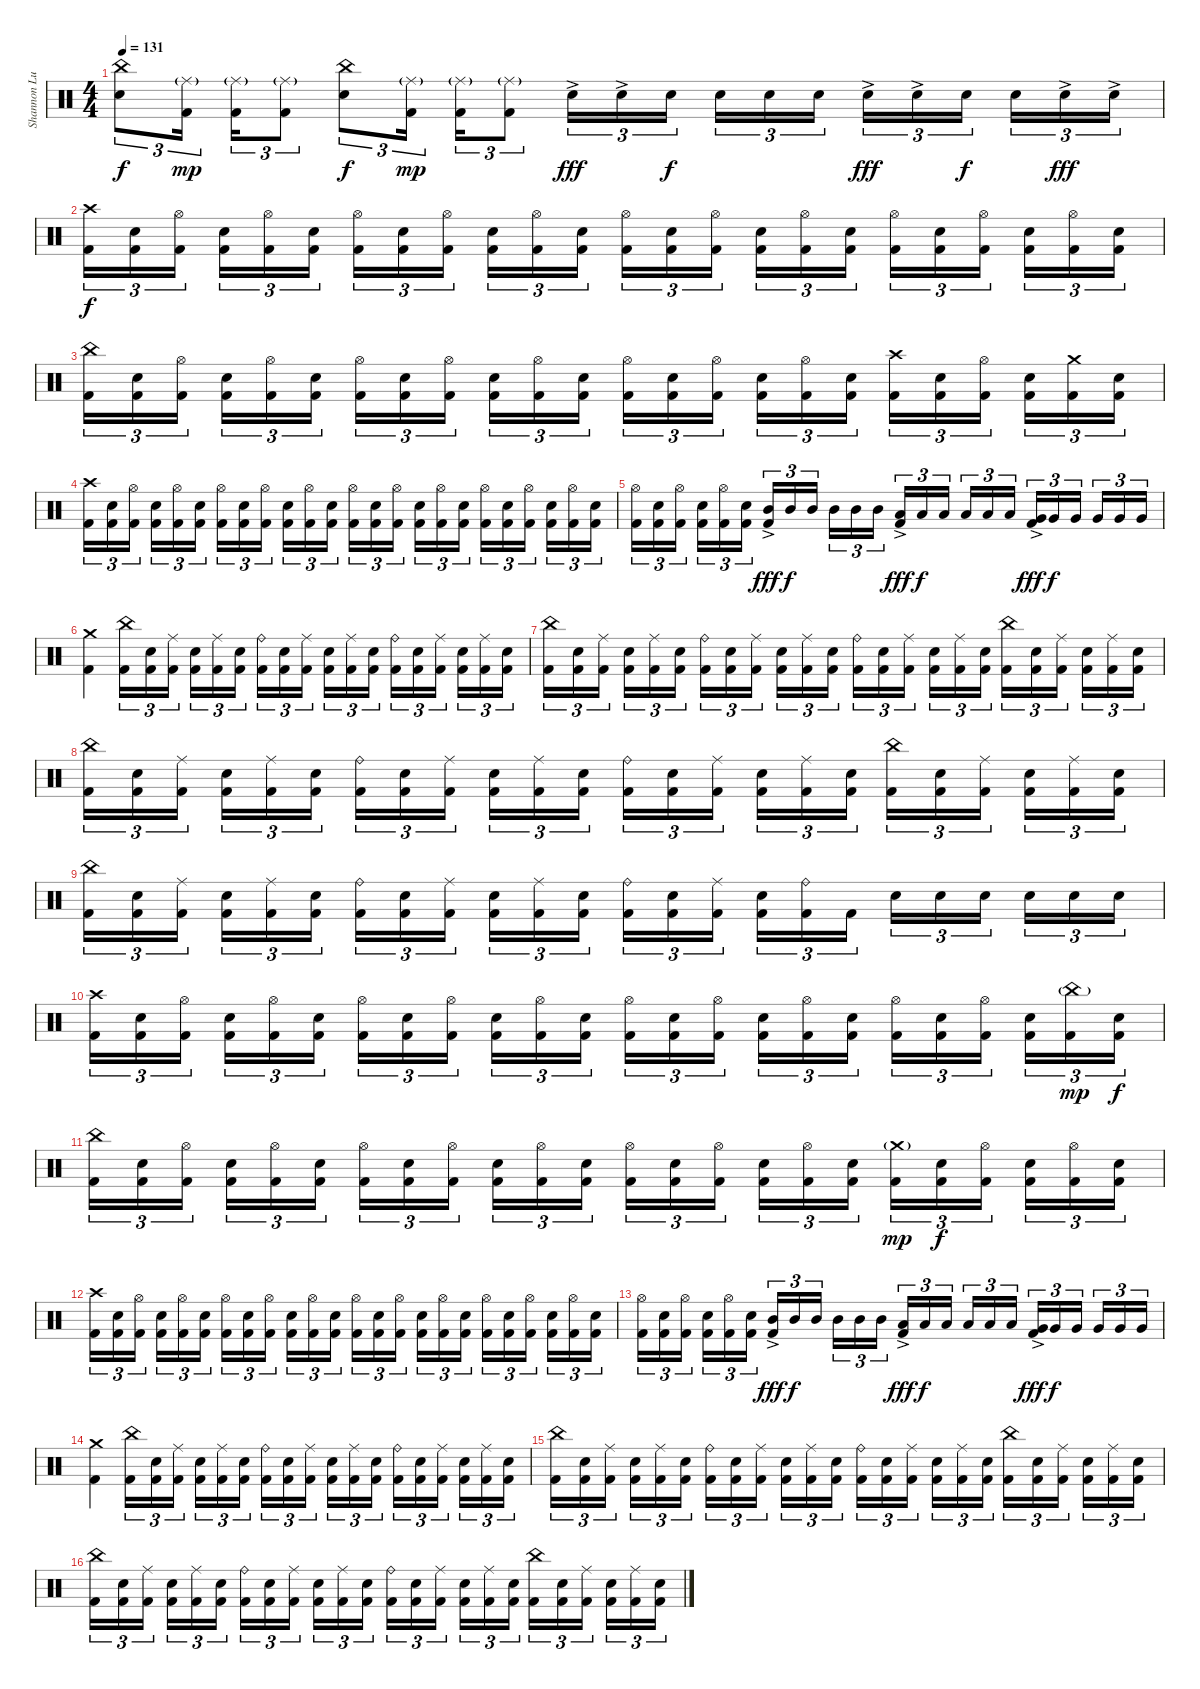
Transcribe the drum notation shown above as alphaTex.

\track ("Shannon Lucas [Drums (Since 2007)]" "Shannon Lu") {instrument percussion}
\staff {score}
\articulation defaults
\ts (4 4)
\tempo 131
\clef neutral
\ks c
("China (hit)" "Snare (hit) 2").8{tu (3 2) dy f} ("Ride (middle)"{g} "Kick (hit) 2").16{tu (3 2) dy mp} ("Ride (middle)"{g} "Kick (hit) 2").16{tu (3 2)} ("Ride (middle)"{g} "Kick (hit) 2").8{tu (3 2)} ("China (hit)" "Snare (hit) 2").8{tu (3 2) dy f} ("Ride (middle)"{g} "Kick (hit) 2").16{tu (3 2) dy mp} ("Ride (middle)"{g} "Kick (hit) 2").16{tu (3 2)} ("Ride (middle)"{g} "Kick (hit) 2").8{tu (3 2)} "Snare (hit) 2"{ac}.16{tu (3 2) dy fff} "Snare (hit) 2"{ac}.16{tu (3 2)} "Snare (hit) 2".16{tu (3 2) dy f} "Snare (hit) 2".16{tu (3 2)} "Snare (hit) 2".16{tu (3 2)} "Snare (hit) 2".16{tu (3 2)} "Snare (hit) 2"{ac}.16{tu (3 2) dy fff} "Snare (hit) 2"{ac}.16{tu (3 2)} "Snare (hit) 2".16{tu (3 2) dy f} "Snare (hit) 2".16{tu (3 2)} "Snare (hit) 2"{ac}.16{tu (3 2) dy fff} "Snare (hit) 2"{ac}.16{tu (3 2)} |
("Crash high (hit)" "Kick (hit) 2").16{tu (3 2) dy f} ("Snare (hit) 2" "Kick (hit) 2").16{tu (3 2)} ("Hi-Hat (open)" "Kick (hit) 2").16{tu (3 2)} ("Snare (hit) 2" "Kick (hit) 2").16{tu (3 2)} ("Hi-Hat (open)" "Kick (hit) 2").16{tu (3 2)} ("Snare (hit) 2" "Kick (hit) 2").16{tu (3 2)} ("Hi-Hat (open)" "Kick (hit) 2").16{tu (3 2)} ("Snare (hit) 2" "Kick (hit) 2").16{tu (3 2)} ("Hi-Hat (open)" "Kick (hit) 2").16{tu (3 2)} ("Snare (hit) 2" "Kick (hit) 2").16{tu (3 2)} ("Hi-Hat (open)" "Kick (hit) 2").16{tu (3 2)} ("Snare (hit) 2" "Kick (hit) 2").16{tu (3 2)} ("Hi-Hat (open)" "Kick (hit) 2").16{tu (3 2)} ("Snare (hit) 2" "Kick (hit) 2").16{tu (3 2)} ("Hi-Hat (open)" "Kick (hit) 2").16{tu (3 2)} ("Snare (hit) 2" "Kick (hit) 2").16{tu (3 2)} ("Hi-Hat (open)" "Kick (hit) 2").16{tu (3 2)} ("Snare (hit) 2" "Kick (hit) 2").16{tu (3 2)} ("Hi-Hat (open)" "Kick (hit) 2").16{tu (3 2)} ("Snare (hit) 2" "Kick (hit) 2").16{tu (3 2)} ("Hi-Hat (open)" "Kick (hit) 2").16{tu (3 2)} ("Snare (hit) 2" "Kick (hit) 2").16{tu (3 2)} ("Hi-Hat (open)" "Kick (hit) 2").16{tu (3 2)} ("Snare (hit) 2" "Kick (hit) 2").16{tu (3 2)} |
("China (hit)" "Kick (hit) 2").16{tu (3 2)} ("Snare (hit) 2" "Kick (hit) 2").16{tu (3 2)} ("Hi-Hat (open)" "Kick (hit) 2").16{tu (3 2)} ("Snare (hit) 2" "Kick (hit) 2").16{tu (3 2)} ("Hi-Hat (open)" "Kick (hit) 2").16{tu (3 2)} ("Snare (hit) 2" "Kick (hit) 2").16{tu (3 2)} ("Hi-Hat (open)" "Kick (hit) 2").16{tu (3 2)} ("Snare (hit) 2" "Kick (hit) 2").16{tu (3 2)} ("Hi-Hat (open)" "Kick (hit) 2").16{tu (3 2)} ("Snare (hit) 2" "Kick (hit) 2").16{tu (3 2)} ("Hi-Hat (open)" "Kick (hit) 2").16{tu (3 2)} ("Snare (hit) 2" "Kick (hit) 2").16{tu (3 2)} ("Hi-Hat (open)" "Kick (hit) 2").16{tu (3 2)} ("Snare (hit) 2" "Kick (hit) 2").16{tu (3 2)} ("Hi-Hat (open)" "Kick (hit) 2").16{tu (3 2)} ("Snare (hit) 2" "Kick (hit) 2").16{tu (3 2)} ("Hi-Hat (open)" "Kick (hit) 2").16{tu (3 2)} ("Snare (hit) 2" "Kick (hit) 2").16{tu (3 2)} ("Crash high (hit)" "Kick (hit) 2").16{tu (3 2)} ("Snare (hit) 2" "Kick (hit) 2").16{tu (3 2)} ("Hi-Hat (open)" "Kick (hit) 2").16{tu (3 2)} ("Snare (hit) 2" "Kick (hit) 2").16{tu (3 2)} ("Crash medium (hit)" "Kick (hit) 2").16{tu (3 2)} ("Snare (hit) 2" "Kick (hit) 2").16{tu (3 2)} |
("Crash high (hit)" "Kick (hit) 2").16{tu (3 2)} ("Snare (hit) 2" "Kick (hit) 2").16{tu (3 2)} ("Hi-Hat (open)" "Kick (hit) 2").16{tu (3 2)} ("Snare (hit) 2" "Kick (hit) 2").16{tu (3 2)} ("Hi-Hat (open)" "Kick (hit) 2").16{tu (3 2)} ("Snare (hit) 2" "Kick (hit) 2").16{tu (3 2)} ("Hi-Hat (open)" "Kick (hit) 2").16{tu (3 2)} ("Snare (hit) 2" "Kick (hit) 2").16{tu (3 2)} ("Hi-Hat (open)" "Kick (hit) 2").16{tu (3 2)} ("Snare (hit) 2" "Kick (hit) 2").16{tu (3 2)} ("Hi-Hat (open)" "Kick (hit) 2").16{tu (3 2)} ("Snare (hit) 2" "Kick (hit) 2").16{tu (3 2)} ("Hi-Hat (open)" "Kick (hit) 2").16{tu (3 2)} ("Snare (hit) 2" "Kick (hit) 2").16{tu (3 2)} ("Hi-Hat (open)" "Kick (hit) 2").16{tu (3 2)} ("Snare (hit) 2" "Kick (hit) 2").16{tu (3 2)} ("Hi-Hat (open)" "Kick (hit) 2").16{tu (3 2)} ("Snare (hit) 2" "Kick (hit) 2").16{tu (3 2)} ("Hi-Hat (open)" "Kick (hit) 2").16{tu (3 2)} ("Snare (hit) 2" "Kick (hit) 2").16{tu (3 2)} ("Hi-Hat (open)" "Kick (hit) 2").16{tu (3 2)} ("Snare (hit) 2" "Kick (hit) 2").16{tu (3 2)} ("Hi-Hat (open)" "Kick (hit) 2").16{tu (3 2)} ("Snare (hit) 2" "Kick (hit) 2").16{tu (3 2)} |
("Hi-Hat (open)" "Kick (hit) 2").16{tu (3 2)} ("Snare (hit) 2" "Kick (hit) 2").16{tu (3 2)} ("Hi-Hat (open)" "Kick (hit) 2").16{tu (3 2)} ("Snare (hit) 2" "Kick (hit) 2").16{tu (3 2)} ("Hi-Hat (open)" "Kick (hit) 2").16{tu (3 2)} ("Snare (hit) 2" "Kick (hit) 2").16{tu (3 2)} ("Mid Tom (hit)"{ac} "Kick (hit) 2").16{tu (3 2) dy fff} "Mid Tom (hit)".16{tu (3 2) dy f} "Mid Tom (hit)".16{tu (3 2)} "Mid Tom (hit)".16{tu (3 2)} "Mid Tom (hit)".16{tu (3 2)} "Mid Tom (hit)".16{tu (3 2)} ("Low Tom (hit)"{ac} "Kick (hit) 2").16{tu (3 2) dy fff} "Low Tom (hit)".16{tu (3 2) dy f} "Low Tom (hit)".16{tu (3 2)} "Low Tom (hit)".16{tu (3 2)} "Low Tom (hit)".16{tu (3 2)} "Low Tom (hit)".16{tu (3 2)} ("Very Low Tom (hit)"{ac} "Kick (hit) 2").16{tu (3 2) dy fff} "Very Low Tom (hit)".16{tu (3 2) dy f} "Very Low Tom (hit)".16{tu (3 2)} "Very Low Tom (hit)".16{tu (3 2)} "Very Low Tom (hit)".16{tu (3 2)} "Very Low Tom (hit)".16{tu (3 2)} |
("Crash medium (hit)" "Kick (hit) 2").4 ("China (hit)" "Kick (hit) 2").16{tu (3 2)} ("Snare (hit) 2" "Kick (hit) 2").16{tu (3 2)} ("Ride (middle)" "Kick (hit) 2").16{tu (3 2)} ("Snare (hit) 2" "Kick (hit) 2").16{tu (3 2)} ("Ride (middle)" "Kick (hit) 2").16{tu (3 2)} ("Snare (hit) 2" "Kick (hit) 2").16{tu (3 2)} ("Ride (bell)" "Kick (hit) 2").16{tu (3 2)} ("Snare (hit) 2" "Kick (hit) 2").16{tu (3 2)} ("Ride (middle)" "Kick (hit) 2").16{tu (3 2)} ("Snare (hit) 2" "Kick (hit) 2").16{tu (3 2)} ("Ride (middle)" "Kick (hit) 2").16{tu (3 2)} ("Snare (hit) 2" "Kick (hit) 2").16{tu (3 2)} ("Ride (bell)" "Kick (hit) 2").16{tu (3 2)} ("Snare (hit) 2" "Kick (hit) 2").16{tu (3 2)} ("Ride (middle)" "Kick (hit) 2").16{tu (3 2)} ("Snare (hit) 2" "Kick (hit) 2").16{tu (3 2)} ("Ride (middle)" "Kick (hit) 2").16{tu (3 2)} ("Snare (hit) 2" "Kick (hit) 2").16{tu (3 2)} |
("China (hit)" "Kick (hit) 2").16{tu (3 2)} ("Snare (hit) 2" "Kick (hit) 2").16{tu (3 2)} ("Ride (middle)" "Kick (hit) 2").16{tu (3 2)} ("Snare (hit) 2" "Kick (hit) 2").16{tu (3 2)} ("Ride (middle)" "Kick (hit) 2").16{tu (3 2)} ("Snare (hit) 2" "Kick (hit) 2").16{tu (3 2)} ("Ride (bell)" "Kick (hit) 2").16{tu (3 2)} ("Snare (hit) 2" "Kick (hit) 2").16{tu (3 2)} ("Ride (middle)" "Kick (hit) 2").16{tu (3 2)} ("Snare (hit) 2" "Kick (hit) 2").16{tu (3 2)} ("Ride (middle)" "Kick (hit) 2").16{tu (3 2)} ("Snare (hit) 2" "Kick (hit) 2").16{tu (3 2)} ("Ride (bell)" "Kick (hit) 2").16{tu (3 2)} ("Snare (hit) 2" "Kick (hit) 2").16{tu (3 2)} ("Ride (middle)" "Kick (hit) 2").16{tu (3 2)} ("Snare (hit) 2" "Kick (hit) 2").16{tu (3 2)} ("Ride (middle)" "Kick (hit) 2").16{tu (3 2)} ("Snare (hit) 2" "Kick (hit) 2").16{tu (3 2)} ("China (hit)" "Kick (hit) 2").16{tu (3 2)} ("Snare (hit) 2" "Kick (hit) 2").16{tu (3 2)} ("Ride (middle)" "Kick (hit) 2").16{tu (3 2)} ("Snare (hit) 2" "Kick (hit) 2").16{tu (3 2)} ("Ride (middle)" "Kick (hit) 2").16{tu (3 2)} ("Snare (hit) 2" "Kick (hit) 2").16{tu (3 2)} |
("China (hit)" "Kick (hit) 2").16{tu (3 2)} ("Snare (hit) 2" "Kick (hit) 2").16{tu (3 2)} ("Ride (middle)" "Kick (hit) 2").16{tu (3 2)} ("Snare (hit) 2" "Kick (hit) 2").16{tu (3 2)} ("Ride (middle)" "Kick (hit) 2").16{tu (3 2)} ("Snare (hit) 2" "Kick (hit) 2").16{tu (3 2)} ("Ride (bell)" "Kick (hit) 2").16{tu (3 2)} ("Snare (hit) 2" "Kick (hit) 2").16{tu (3 2)} ("Ride (middle)" "Kick (hit) 2").16{tu (3 2)} ("Snare (hit) 2" "Kick (hit) 2").16{tu (3 2)} ("Ride (middle)" "Kick (hit) 2").16{tu (3 2)} ("Snare (hit) 2" "Kick (hit) 2").16{tu (3 2)} ("Ride (bell)" "Kick (hit) 2").16{tu (3 2)} ("Snare (hit) 2" "Kick (hit) 2").16{tu (3 2)} ("Ride (middle)" "Kick (hit) 2").16{tu (3 2)} ("Snare (hit) 2" "Kick (hit) 2").16{tu (3 2)} ("Ride (middle)" "Kick (hit) 2").16{tu (3 2)} ("Snare (hit) 2" "Kick (hit) 2").16{tu (3 2)} ("China (hit)" "Kick (hit) 2").16{tu (3 2)} ("Snare (hit) 2" "Kick (hit) 2").16{tu (3 2)} ("Ride (middle)" "Kick (hit) 2").16{tu (3 2)} ("Snare (hit) 2" "Kick (hit) 2").16{tu (3 2)} ("Ride (middle)" "Kick (hit) 2").16{tu (3 2)} ("Snare (hit) 2" "Kick (hit) 2").16{tu (3 2)} |
("China (hit)" "Kick (hit) 2").16{tu (3 2)} ("Snare (hit) 2" "Kick (hit) 2").16{tu (3 2)} ("Ride (middle)" "Kick (hit) 2").16{tu (3 2)} ("Snare (hit) 2" "Kick (hit) 2").16{tu (3 2)} ("Ride (middle)" "Kick (hit) 2").16{tu (3 2)} ("Snare (hit) 2" "Kick (hit) 2").16{tu (3 2)} ("Ride (bell)" "Kick (hit) 2").16{tu (3 2)} ("Snare (hit) 2" "Kick (hit) 2").16{tu (3 2)} ("Ride (middle)" "Kick (hit) 2").16{tu (3 2)} ("Snare (hit) 2" "Kick (hit) 2").16{tu (3 2)} ("Ride (middle)" "Kick (hit) 2").16{tu (3 2)} ("Snare (hit) 2" "Kick (hit) 2").16{tu (3 2)} ("Ride (bell)" "Kick (hit) 2").16{tu (3 2)} ("Snare (hit) 2" "Kick (hit) 2").16{tu (3 2)} ("Ride (middle)" "Kick (hit) 2").16{tu (3 2)} ("Snare (hit) 2" "Kick (hit) 2").16{tu (3 2)} ("Ride (bell)" "Kick (hit) 2").16{tu (3 2)} "Kick (hit) 2".16{tu (3 2)} "Snare (hit) 2".16{tu (3 2)} "Snare (hit) 2".16{tu (3 2)} "Snare (hit) 2".16{tu (3 2)} "Snare (hit) 2".16{tu (3 2)} "Snare (hit) 2".16{tu (3 2)} "Snare (hit) 2".16{tu (3 2)} |
("Crash high (hit)" "Kick (hit) 2").16{tu (3 2)} ("Snare (hit) 2" "Kick (hit) 2").16{tu (3 2)} ("Hi-Hat (open)" "Kick (hit) 2").16{tu (3 2)} ("Snare (hit) 2" "Kick (hit) 2").16{tu (3 2)} ("Hi-Hat (open)" "Kick (hit) 2").16{tu (3 2)} ("Snare (hit) 2" "Kick (hit) 2").16{tu (3 2)} ("Hi-Hat (open)" "Kick (hit) 2").16{tu (3 2)} ("Snare (hit) 2" "Kick (hit) 2").16{tu (3 2)} ("Hi-Hat (open)" "Kick (hit) 2").16{tu (3 2)} ("Snare (hit) 2" "Kick (hit) 2").16{tu (3 2)} ("Hi-Hat (open)" "Kick (hit) 2").16{tu (3 2)} ("Snare (hit) 2" "Kick (hit) 2").16{tu (3 2)} ("Hi-Hat (open)" "Kick (hit) 2").16{tu (3 2)} ("Snare (hit) 2" "Kick (hit) 2").16{tu (3 2)} ("Hi-Hat (open)" "Kick (hit) 2").16{tu (3 2)} ("Snare (hit) 2" "Kick (hit) 2").16{tu (3 2)} ("Hi-Hat (open)" "Kick (hit) 2").16{tu (3 2)} ("Snare (hit) 2" "Kick (hit) 2").16{tu (3 2)} ("Hi-Hat (open)" "Kick (hit) 2").16{tu (3 2)} ("Snare (hit) 2" "Kick (hit) 2").16{tu (3 2)} ("Hi-Hat (open)" "Kick (hit) 2").16{tu (3 2)} ("Snare (hit) 2" "Kick (hit) 2").16{tu (3 2)} ("China (hit)"{g} "Kick (hit) 2").16{tu (3 2) dy mp} ("Snare (hit) 2" "Kick (hit) 2").16{tu (3 2) dy f} |
("China (hit)" "Kick (hit) 2").16{tu (3 2)} ("Snare (hit) 2" "Kick (hit) 2").16{tu (3 2)} ("Hi-Hat (open)" "Kick (hit) 2").16{tu (3 2)} ("Snare (hit) 2" "Kick (hit) 2").16{tu (3 2)} ("Hi-Hat (open)" "Kick (hit) 2").16{tu (3 2)} ("Snare (hit) 2" "Kick (hit) 2").16{tu (3 2)} ("Hi-Hat (open)" "Kick (hit) 2").16{tu (3 2)} ("Snare (hit) 2" "Kick (hit) 2").16{tu (3 2)} ("Hi-Hat (open)" "Kick (hit) 2").16{tu (3 2)} ("Snare (hit) 2" "Kick (hit) 2").16{tu (3 2)} ("Hi-Hat (open)" "Kick (hit) 2").16{tu (3 2)} ("Snare (hit) 2" "Kick (hit) 2").16{tu (3 2)} ("Hi-Hat (open)" "Kick (hit) 2").16{tu (3 2)} ("Snare (hit) 2" "Kick (hit) 2").16{tu (3 2)} ("Hi-Hat (open)" "Kick (hit) 2").16{tu (3 2)} ("Snare (hit) 2" "Kick (hit) 2").16{tu (3 2)} ("Hi-Hat (open)" "Kick (hit) 2").16{tu (3 2)} ("Snare (hit) 2" "Kick (hit) 2").16{tu (3 2)} ("Crash medium (hit)"{g} "Kick (hit) 2").16{tu (3 2) dy mp} ("Snare (hit) 2" "Kick (hit) 2").16{tu (3 2) dy f} ("Hi-Hat (open)" "Kick (hit) 2").16{tu (3 2)} ("Snare (hit) 2" "Kick (hit) 2").16{tu (3 2)} ("Hi-Hat (open)" "Kick (hit) 2").16{tu (3 2)} ("Snare (hit) 2" "Kick (hit) 2").16{tu (3 2)} |
("Crash high (hit)" "Kick (hit) 2").16{tu (3 2)} ("Snare (hit) 2" "Kick (hit) 2").16{tu (3 2)} ("Hi-Hat (open)" "Kick (hit) 2").16{tu (3 2)} ("Snare (hit) 2" "Kick (hit) 2").16{tu (3 2)} ("Hi-Hat (open)" "Kick (hit) 2").16{tu (3 2)} ("Snare (hit) 2" "Kick (hit) 2").16{tu (3 2)} ("Hi-Hat (open)" "Kick (hit) 2").16{tu (3 2)} ("Snare (hit) 2" "Kick (hit) 2").16{tu (3 2)} ("Hi-Hat (open)" "Kick (hit) 2").16{tu (3 2)} ("Snare (hit) 2" "Kick (hit) 2").16{tu (3 2)} ("Hi-Hat (open)" "Kick (hit) 2").16{tu (3 2)} ("Snare (hit) 2" "Kick (hit) 2").16{tu (3 2)} ("Hi-Hat (open)" "Kick (hit) 2").16{tu (3 2)} ("Snare (hit) 2" "Kick (hit) 2").16{tu (3 2)} ("Hi-Hat (open)" "Kick (hit) 2").16{tu (3 2)} ("Snare (hit) 2" "Kick (hit) 2").16{tu (3 2)} ("Hi-Hat (open)" "Kick (hit) 2").16{tu (3 2)} ("Snare (hit) 2" "Kick (hit) 2").16{tu (3 2)} ("Hi-Hat (open)" "Kick (hit) 2").16{tu (3 2)} ("Snare (hit) 2" "Kick (hit) 2").16{tu (3 2)} ("Hi-Hat (open)" "Kick (hit) 2").16{tu (3 2)} ("Snare (hit) 2" "Kick (hit) 2").16{tu (3 2)} ("Hi-Hat (open)" "Kick (hit) 2").16{tu (3 2)} ("Snare (hit) 2" "Kick (hit) 2").16{tu (3 2)} |
("Hi-Hat (open)" "Kick (hit) 2").16{tu (3 2)} ("Snare (hit) 2" "Kick (hit) 2").16{tu (3 2)} ("Hi-Hat (open)" "Kick (hit) 2").16{tu (3 2)} ("Snare (hit) 2" "Kick (hit) 2").16{tu (3 2)} ("Hi-Hat (open)" "Kick (hit) 2").16{tu (3 2)} ("Snare (hit) 2" "Kick (hit) 2").16{tu (3 2)} ("Mid Tom (hit)"{ac} "Kick (hit) 2").16{tu (3 2) dy fff} "Mid Tom (hit)".16{tu (3 2) dy f} "Mid Tom (hit)".16{tu (3 2)} "Mid Tom (hit)".16{tu (3 2)} "Mid Tom (hit)".16{tu (3 2)} "Mid Tom (hit)".16{tu (3 2)} ("Low Tom (hit)"{ac} "Kick (hit) 2").16{tu (3 2) dy fff} "Low Tom (hit)".16{tu (3 2) dy f} "Low Tom (hit)".16{tu (3 2)} "Low Tom (hit)".16{tu (3 2)} "Low Tom (hit)".16{tu (3 2)} "Low Tom (hit)".16{tu (3 2)} ("Very Low Tom (hit)"{ac} "Kick (hit) 2").16{tu (3 2) dy fff} "Very Low Tom (hit)".16{tu (3 2) dy f} "Very Low Tom (hit)".16{tu (3 2)} "Very Low Tom (hit)".16{tu (3 2)} "Very Low Tom (hit)".16{tu (3 2)} "Very Low Tom (hit)".16{tu (3 2)} |
("Crash medium (hit)" "Kick (hit) 2").4 ("China (hit)" "Kick (hit) 2").16{tu (3 2)} ("Snare (hit) 2" "Kick (hit) 2").16{tu (3 2)} ("Ride (middle)" "Kick (hit) 2").16{tu (3 2)} ("Snare (hit) 2" "Kick (hit) 2").16{tu (3 2)} ("Ride (middle)" "Kick (hit) 2").16{tu (3 2)} ("Snare (hit) 2" "Kick (hit) 2").16{tu (3 2)} ("Ride (bell)" "Kick (hit) 2").16{tu (3 2)} ("Snare (hit) 2" "Kick (hit) 2").16{tu (3 2)} ("Ride (middle)" "Kick (hit) 2").16{tu (3 2)} ("Snare (hit) 2" "Kick (hit) 2").16{tu (3 2)} ("Ride (middle)" "Kick (hit) 2").16{tu (3 2)} ("Snare (hit) 2" "Kick (hit) 2").16{tu (3 2)} ("Ride (bell)" "Kick (hit) 2").16{tu (3 2)} ("Snare (hit) 2" "Kick (hit) 2").16{tu (3 2)} ("Ride (middle)" "Kick (hit) 2").16{tu (3 2)} ("Snare (hit) 2" "Kick (hit) 2").16{tu (3 2)} ("Ride (middle)" "Kick (hit) 2").16{tu (3 2)} ("Snare (hit) 2" "Kick (hit) 2").16{tu (3 2)} |
("China (hit)" "Kick (hit) 2").16{tu (3 2)} ("Snare (hit) 2" "Kick (hit) 2").16{tu (3 2)} ("Ride (middle)" "Kick (hit) 2").16{tu (3 2)} ("Snare (hit) 2" "Kick (hit) 2").16{tu (3 2)} ("Ride (middle)" "Kick (hit) 2").16{tu (3 2)} ("Snare (hit) 2" "Kick (hit) 2").16{tu (3 2)} ("Ride (bell)" "Kick (hit) 2").16{tu (3 2)} ("Snare (hit) 2" "Kick (hit) 2").16{tu (3 2)} ("Ride (middle)" "Kick (hit) 2").16{tu (3 2)} ("Snare (hit) 2" "Kick (hit) 2").16{tu (3 2)} ("Ride (middle)" "Kick (hit) 2").16{tu (3 2)} ("Snare (hit) 2" "Kick (hit) 2").16{tu (3 2)} ("Ride (bell)" "Kick (hit) 2").16{tu (3 2)} ("Snare (hit) 2" "Kick (hit) 2").16{tu (3 2)} ("Ride (middle)" "Kick (hit) 2").16{tu (3 2)} ("Snare (hit) 2" "Kick (hit) 2").16{tu (3 2)} ("Ride (middle)" "Kick (hit) 2").16{tu (3 2)} ("Snare (hit) 2" "Kick (hit) 2").16{tu (3 2)} ("China (hit)" "Kick (hit) 2").16{tu (3 2)} ("Snare (hit) 2" "Kick (hit) 2").16{tu (3 2)} ("Ride (middle)" "Kick (hit) 2").16{tu (3 2)} ("Snare (hit) 2" "Kick (hit) 2").16{tu (3 2)} ("Ride (middle)" "Kick (hit) 2").16{tu (3 2)} ("Snare (hit) 2" "Kick (hit) 2").16{tu (3 2)} |
("China (hit)" "Kick (hit) 2").16{tu (3 2)} ("Snare (hit) 2" "Kick (hit) 2").16{tu (3 2)} ("Ride (middle)" "Kick (hit) 2").16{tu (3 2)} ("Snare (hit) 2" "Kick (hit) 2").16{tu (3 2)} ("Ride (middle)" "Kick (hit) 2").16{tu (3 2)} ("Snare (hit) 2" "Kick (hit) 2").16{tu (3 2)} ("Ride (bell)" "Kick (hit) 2").16{tu (3 2)} ("Snare (hit) 2" "Kick (hit) 2").16{tu (3 2)} ("Ride (middle)" "Kick (hit) 2").16{tu (3 2)} ("Snare (hit) 2" "Kick (hit) 2").16{tu (3 2)} ("Ride (middle)" "Kick (hit) 2").16{tu (3 2)} ("Snare (hit) 2" "Kick (hit) 2").16{tu (3 2)} ("Ride (bell)" "Kick (hit) 2").16{tu (3 2)} ("Snare (hit) 2" "Kick (hit) 2").16{tu (3 2)} ("Ride (middle)" "Kick (hit) 2").16{tu (3 2)} ("Snare (hit) 2" "Kick (hit) 2").16{tu (3 2)} ("Ride (middle)" "Kick (hit) 2").16{tu (3 2)} ("Snare (hit) 2" "Kick (hit) 2").16{tu (3 2)} ("China (hit)" "Kick (hit) 2").16{tu (3 2)} ("Snare (hit) 2" "Kick (hit) 2").16{tu (3 2)} ("Ride (middle)" "Kick (hit) 2").16{tu (3 2)} ("Snare (hit) 2" "Kick (hit) 2").16{tu (3 2)} ("Ride (middle)" "Kick (hit) 2").16{tu (3 2)} ("Snare (hit) 2" "Kick (hit) 2").16{tu (3 2)}
